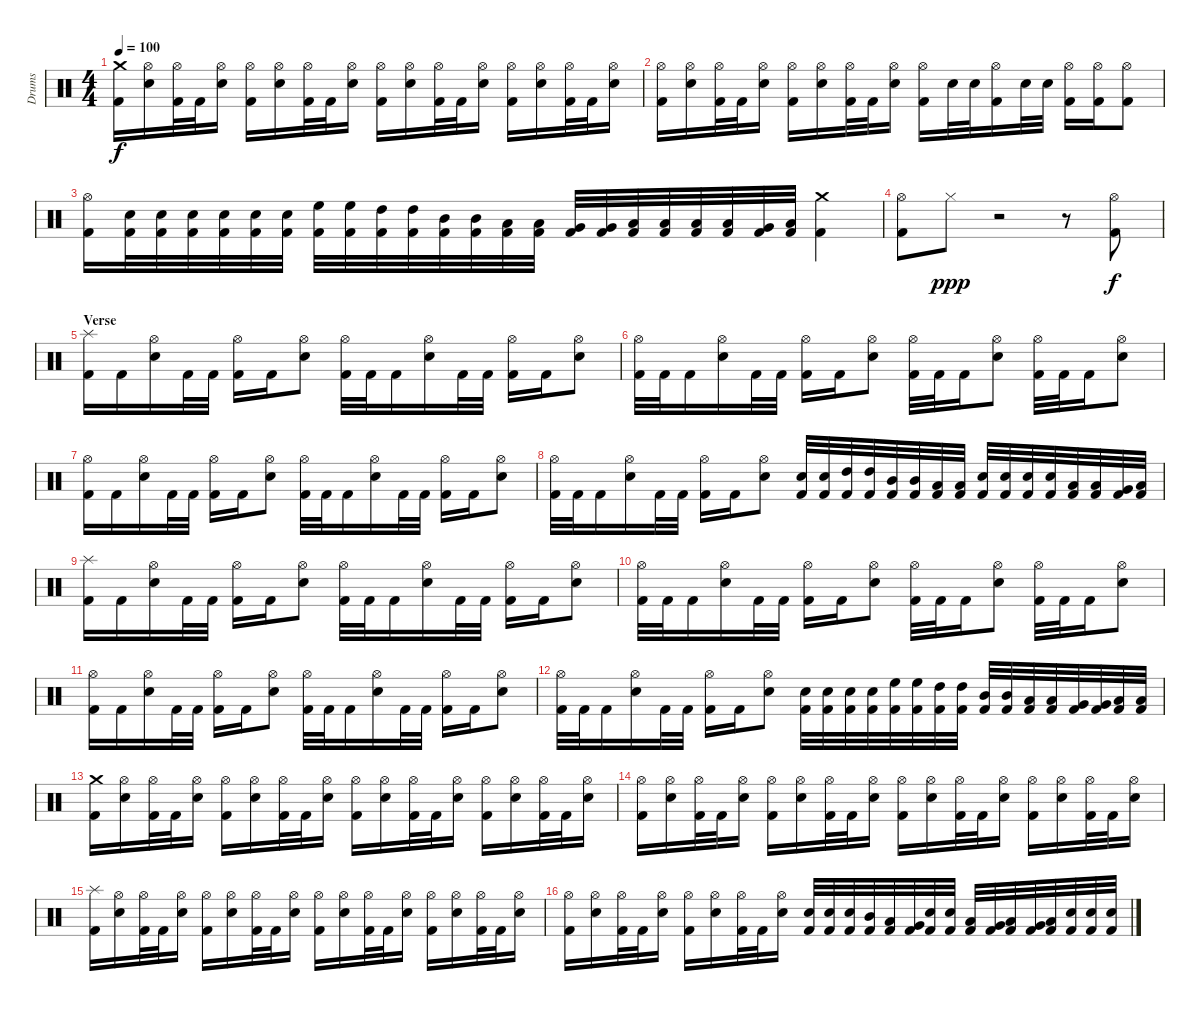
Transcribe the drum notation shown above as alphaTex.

\track ("Drums" "Drums") {instrument percussion}
\staff {score}
\articulation defaults
\ts (4 4)
\tempo 100
\clef neutral
\ks c
("Kick (hit) 2" "Crash medium (hit)").16{dy f} ("Snare (hit) 2" "Hi-Hat (open)").16 ("Kick (hit) 2" "Hi-Hat (open)").32 "Kick (hit) 2".32 ("Snare (hit) 2" "Hi-Hat (open)").16 ("Kick (hit) 2" "Hi-Hat (open)").16 ("Snare (hit) 2" "Hi-Hat (open)").16 ("Kick (hit) 2" "Hi-Hat (open)").32 "Kick (hit) 2".32 ("Snare (hit) 2" "Hi-Hat (open)").16 ("Kick (hit) 2" "Hi-Hat (open)").16 ("Snare (hit) 2" "Hi-Hat (open)").16 ("Kick (hit) 2" "Hi-Hat (open)").32 "Kick (hit) 2".32 ("Snare (hit) 2" "Hi-Hat (open)").16 ("Kick (hit) 2" "Hi-Hat (open)").16 ("Snare (hit) 2" "Hi-Hat (open)").16 ("Kick (hit) 2" "Hi-Hat (open)").32 "Kick (hit) 2".32 ("Snare (hit) 2" "Hi-Hat (open)").16 |
("Kick (hit) 2" "Hi-Hat (open)").16 ("Snare (hit) 2" "Hi-Hat (open)").16 ("Kick (hit) 2" "Hi-Hat (open)").32 "Kick (hit) 2".32 ("Snare (hit) 2" "Hi-Hat (open)").16 ("Kick (hit) 2" "Hi-Hat (open)").16 ("Snare (hit) 2" "Hi-Hat (open)").16 ("Kick (hit) 2" "Hi-Hat (open)").32 "Kick (hit) 2".32 ("Snare (hit) 2" "Hi-Hat (open)").16 ("Kick (hit) 2" "Hi-Hat (open)").16 "Snare (hit) 2".32 "Snare (hit) 2".32 ("Kick (hit) 2" "Hi-Hat (open)").16 "Snare (hit) 2".32 "Snare (hit) 2".32 ("Kick (hit) 2" "Hi-Hat (open)").16 ("Kick (hit) 2" "Hi-Hat (open)").16 ("Kick (hit) 2" "Hi-Hat (open)").8 |
("Kick (hit) 2" "Hi-Hat (open)").16 ("Kick (hit) 2" "Snare (hit) 2").32 ("Kick (hit) 2" "Snare (hit) 2").32 ("Kick (hit) 2" "Snare (hit) 2").32 ("Kick (hit) 2" "Snare (hit) 2").32 ("Kick (hit) 2" "Snare (hit) 2").32 ("Kick (hit) 2" "Snare (hit) 2").32 ("Kick (hit) 2" "High Floor Tom (hit)").32 ("Kick (hit) 2" "High Floor Tom (hit)").32 ("Kick (hit) 2" "High Tom (hit)").32 ("Kick (hit) 2" "High Tom (hit)").32 ("Kick (hit) 2" "Mid Tom (hit)").32 ("Kick (hit) 2" "Mid Tom (hit)").32 ("Kick (hit) 2" "Low Tom (hit)").32 ("Kick (hit) 2" "Low Tom (hit)").32 ("Kick (hit) 2" "Very Low Tom (hit)").32 ("Kick (hit) 2" "Very Low Tom (hit)").32 ("Kick (hit) 2" "Low Floor Tom (hit)").32 ("Kick (hit) 2" "Low Floor Tom (hit)").32 ("Kick (hit) 2" "Low Tom (hit)").32 ("Kick (hit) 2" "Low Tom (hit)").32 ("Kick (hit) 2" "Very Low Tom (hit)").32 ("Kick (hit) 2" "Low Floor Tom (hit)").32 ("Kick (hit) 2" "Crash medium (hit)").4 |
("Kick (hit) 2" "Hi-Hat (open)").8 "Hi-Hat (closed)".8{dy ppp} r.2 r.8 ("Kick (hit) 2" "Hi-Hat (open)").8{dy f} |
\section ("" "Verse")
("Kick (hit) 2" "Splash (hit)").16 "Kick (hit) 2".16 ("Snare (hit) 2" "Hi-Hat (open)").16 "Kick (hit) 2".32 "Kick (hit) 2".32 ("Kick (hit) 2" "Hi-Hat (open)").16 "Kick (hit) 2".16 ("Snare (hit) 2" "Hi-Hat (open)").8 ("Kick (hit) 2" "Hi-Hat (open)").32 "Kick (hit) 2".32 "Kick (hit) 2".16 ("Snare (hit) 2" "Hi-Hat (open)").16 "Kick (hit) 2".32 "Kick (hit) 2".32 ("Kick (hit) 2" "Hi-Hat (open)").16 "Kick (hit) 2".16 ("Snare (hit) 2" "Hi-Hat (open)").8 |
("Kick (hit) 2" "Hi-Hat (open)").32 "Kick (hit) 2".32 "Kick (hit) 2".16 ("Snare (hit) 2" "Hi-Hat (open)").16 "Kick (hit) 2".32 "Kick (hit) 2".32 ("Kick (hit) 2" "Hi-Hat (open)").16 "Kick (hit) 2".16 ("Snare (hit) 2" "Hi-Hat (open)").8 ("Kick (hit) 2" "Hi-Hat (open)").32 "Kick (hit) 2".32 "Kick (hit) 2".16 ("Snare (hit) 2" "Hi-Hat (open)").8 ("Kick (hit) 2" "Hi-Hat (open)").32 "Kick (hit) 2".32 "Kick (hit) 2".16 ("Snare (hit) 2" "Hi-Hat (open)").8 |
("Kick (hit) 2" "Hi-Hat (open)").16 "Kick (hit) 2".16 ("Snare (hit) 2" "Hi-Hat (open)").16 "Kick (hit) 2".32 "Kick (hit) 2".32 ("Kick (hit) 2" "Hi-Hat (open)").16 "Kick (hit) 2".16 ("Snare (hit) 2" "Hi-Hat (open)").8 ("Kick (hit) 2" "Hi-Hat (open)").32 "Kick (hit) 2".32 "Kick (hit) 2".16 ("Snare (hit) 2" "Hi-Hat (open)").16 "Kick (hit) 2".32 "Kick (hit) 2".32 ("Kick (hit) 2" "Hi-Hat (open)").16 "Kick (hit) 2".16 ("Snare (hit) 2" "Hi-Hat (open)").8 |
("Kick (hit) 2" "Hi-Hat (open)").32 "Kick (hit) 2".32 "Kick (hit) 2".16 ("Snare (hit) 2" "Hi-Hat (open)").16 "Kick (hit) 2".32 "Kick (hit) 2".32 ("Kick (hit) 2" "Hi-Hat (open)").16 "Kick (hit) 2".16 ("Snare (hit) 2" "Hi-Hat (open)").8 ("Kick (hit) 2" "Snare (hit) 2").32 ("Kick (hit) 2" "Snare (hit) 2").32 ("Kick (hit) 2" "High Tom (hit)").32 ("Kick (hit) 2" "High Tom (hit)").32 ("Kick (hit) 2" "Mid Tom (hit)").32 ("Kick (hit) 2" "Mid Tom (hit)").32 ("Kick (hit) 2" "Low Tom (hit)").32 ("Kick (hit) 2" "Low Tom (hit)").32 ("Kick (hit) 2" "Snare (hit) 2").32 ("Kick (hit) 2" "Snare (hit) 2").32 ("Kick (hit) 2" "Snare (hit) 2").32 ("Kick (hit) 2" "Snare (hit) 2").32 ("Kick (hit) 2" "Low Tom (hit)").32 ("Kick (hit) 2" "Low Tom (hit)").32 ("Kick (hit) 2" "Very Low Tom (hit)").32 ("Kick (hit) 2" "Low Floor Tom (hit)").32 |
("Kick (hit) 2" "Splash (hit)").16 "Kick (hit) 2".16 ("Snare (hit) 2" "Hi-Hat (open)").16 "Kick (hit) 2".32 "Kick (hit) 2".32 ("Kick (hit) 2" "Hi-Hat (open)").16 "Kick (hit) 2".16 ("Snare (hit) 2" "Hi-Hat (open)").8 ("Kick (hit) 2" "Hi-Hat (open)").32 "Kick (hit) 2".32 "Kick (hit) 2".16 ("Snare (hit) 2" "Hi-Hat (open)").16 "Kick (hit) 2".32 "Kick (hit) 2".32 ("Kick (hit) 2" "Hi-Hat (open)").16 "Kick (hit) 2".16 ("Snare (hit) 2" "Hi-Hat (open)").8 |
("Kick (hit) 2" "Hi-Hat (open)").32 "Kick (hit) 2".32 "Kick (hit) 2".16 ("Snare (hit) 2" "Hi-Hat (open)").16 "Kick (hit) 2".32 "Kick (hit) 2".32 ("Kick (hit) 2" "Hi-Hat (open)").16 "Kick (hit) 2".16 ("Snare (hit) 2" "Hi-Hat (open)").8 ("Kick (hit) 2" "Hi-Hat (open)").32 "Kick (hit) 2".32 "Kick (hit) 2".16 ("Snare (hit) 2" "Hi-Hat (open)").8 ("Kick (hit) 2" "Hi-Hat (open)").32 "Kick (hit) 2".32 "Kick (hit) 2".16 ("Snare (hit) 2" "Hi-Hat (open)").8 |
("Kick (hit) 2" "Hi-Hat (open)").16 "Kick (hit) 2".16 ("Snare (hit) 2" "Hi-Hat (open)").16 "Kick (hit) 2".32 "Kick (hit) 2".32 ("Kick (hit) 2" "Hi-Hat (open)").16 "Kick (hit) 2".16 ("Snare (hit) 2" "Hi-Hat (open)").8 ("Kick (hit) 2" "Hi-Hat (open)").32 "Kick (hit) 2".32 "Kick (hit) 2".16 ("Snare (hit) 2" "Hi-Hat (open)").16 "Kick (hit) 2".32 "Kick (hit) 2".32 ("Kick (hit) 2" "Hi-Hat (open)").16 "Kick (hit) 2".16 ("Snare (hit) 2" "Hi-Hat (open)").8 |
("Kick (hit) 2" "Hi-Hat (open)").32 "Kick (hit) 2".32 "Kick (hit) 2".16 ("Snare (hit) 2" "Hi-Hat (open)").16 "Kick (hit) 2".32 "Kick (hit) 2".32 ("Kick (hit) 2" "Hi-Hat (open)").16 "Kick (hit) 2".16 ("Snare (hit) 2" "Hi-Hat (open)").8 ("Kick (hit) 2" "Snare (hit) 2").32 ("Kick (hit) 2" "Snare (hit) 2").32 ("Kick (hit) 2" "Snare (hit) 2").32 ("Kick (hit) 2" "Snare (hit) 2").32 ("Kick (hit) 2" "High Floor Tom (hit)").32 ("Kick (hit) 2" "High Floor Tom (hit)").32 ("Kick (hit) 2" "High Tom (hit)").32 ("Kick (hit) 2" "High Tom (hit)").32 ("Kick (hit) 2" "Mid Tom (hit)").32 ("Kick (hit) 2" "Mid Tom (hit)").32 ("Kick (hit) 2" "Low Tom (hit)").32 ("Kick (hit) 2" "Low Tom (hit)").32 ("Kick (hit) 2" "Very Low Tom (hit)").32 ("Kick (hit) 2" "Very Low Tom (hit)").32 ("Kick (hit) 2" "Low Floor Tom (hit)").32 ("Kick (hit) 2" "Low Floor Tom (hit)").32 |
\section ("" "")
("Kick (hit) 2" "Crash medium (hit)").16 ("Snare (hit) 2" "Hi-Hat (open)").16 ("Kick (hit) 2" "Hi-Hat (open)").32 "Kick (hit) 2".32 ("Snare (hit) 2" "Hi-Hat (open)").16 ("Kick (hit) 2" "Hi-Hat (open)").16 ("Snare (hit) 2" "Hi-Hat (open)").16 ("Kick (hit) 2" "Hi-Hat (open)").32 "Kick (hit) 2".32 ("Snare (hit) 2" "Hi-Hat (open)").16 ("Kick (hit) 2" "Hi-Hat (open)").16 ("Snare (hit) 2" "Hi-Hat (open)").16 ("Kick (hit) 2" "Hi-Hat (open)").32 "Kick (hit) 2".32 ("Snare (hit) 2" "Hi-Hat (open)").16 ("Kick (hit) 2" "Hi-Hat (open)").16 ("Snare (hit) 2" "Hi-Hat (open)").16 ("Kick (hit) 2" "Hi-Hat (open)").32 "Kick (hit) 2".32 ("Snare (hit) 2" "Hi-Hat (open)").16 |
("Kick (hit) 2" "Hi-Hat (open)").16 ("Snare (hit) 2" "Hi-Hat (open)").16 ("Kick (hit) 2" "Hi-Hat (open)").32 "Kick (hit) 2".32 ("Snare (hit) 2" "Hi-Hat (open)").16 ("Kick (hit) 2" "Hi-Hat (open)").16 ("Snare (hit) 2" "Hi-Hat (open)").16 ("Kick (hit) 2" "Hi-Hat (open)").32 "Kick (hit) 2".32 ("Snare (hit) 2" "Hi-Hat (open)").16 ("Kick (hit) 2" "Hi-Hat (open)").16 ("Snare (hit) 2" "Hi-Hat (open)").16 ("Kick (hit) 2" "Hi-Hat (open)").32 "Kick (hit) 2".32 ("Snare (hit) 2" "Hi-Hat (open)").16 ("Kick (hit) 2" "Hi-Hat (open)").16 ("Snare (hit) 2" "Hi-Hat (open)").16 ("Kick (hit) 2" "Hi-Hat (open)").32 "Kick (hit) 2".32 ("Snare (hit) 2" "Hi-Hat (open)").16 |
("Kick (hit) 2" "Splash (hit)").16 ("Snare (hit) 2" "Hi-Hat (open)").16 ("Kick (hit) 2" "Hi-Hat (open)").32 "Kick (hit) 2".32 ("Snare (hit) 2" "Hi-Hat (open)").16 ("Kick (hit) 2" "Hi-Hat (open)").16 ("Snare (hit) 2" "Hi-Hat (open)").16 ("Kick (hit) 2" "Hi-Hat (open)").32 "Kick (hit) 2".32 ("Snare (hit) 2" "Hi-Hat (open)").16 ("Kick (hit) 2" "Hi-Hat (open)").16 ("Snare (hit) 2" "Hi-Hat (open)").16 ("Kick (hit) 2" "Hi-Hat (open)").32 "Kick (hit) 2".32 ("Snare (hit) 2" "Hi-Hat (open)").16 ("Kick (hit) 2" "Hi-Hat (open)").16 ("Snare (hit) 2" "Hi-Hat (open)").16 ("Kick (hit) 2" "Hi-Hat (open)").32 "Kick (hit) 2".32 ("Snare (hit) 2" "Hi-Hat (open)").16 |
("Kick (hit) 2" "Hi-Hat (open)").16 ("Snare (hit) 2" "Hi-Hat (open)").16 ("Kick (hit) 2" "Hi-Hat (open)").32 "Kick (hit) 2".32 ("Snare (hit) 2" "Hi-Hat (open)").16 ("Kick (hit) 2" "Hi-Hat (open)").16 ("Snare (hit) 2" "Hi-Hat (open)").16 ("Kick (hit) 2" "Hi-Hat (open)").32 "Kick (hit) 2".32 ("Snare (hit) 2" "Hi-Hat (open)").16 ("Kick (hit) 2" "Snare (hit) 2").32 ("Kick (hit) 2" "Snare (hit) 2").32 ("Kick (hit) 2" "Snare (hit) 2").32 ("Kick (hit) 2" "Mid Tom (hit)").32 ("Kick (hit) 2" "Low Tom (hit)").32 ("Kick (hit) 2" "Very Low Tom (hit)").32 ("Kick (hit) 2" "Snare (hit) 2").32 ("Kick (hit) 2" "Snare (hit) 2").32 ("Kick (hit) 2" "Low Tom (hit)").32 ("Kick (hit) 2" "Very Low Tom (hit)").32 ("Kick (hit) 2" "Low Floor Tom (hit)").32 ("Kick (hit) 2" "Very Low Tom (hit)").32 ("Kick (hit) 2" "Low Floor Tom (hit)").32 ("Kick (hit) 2" "Snare (hit) 2").32 ("Kick (hit) 2" "Snare (hit) 2").32 ("Kick (hit) 2" "Snare (hit) 2").32
